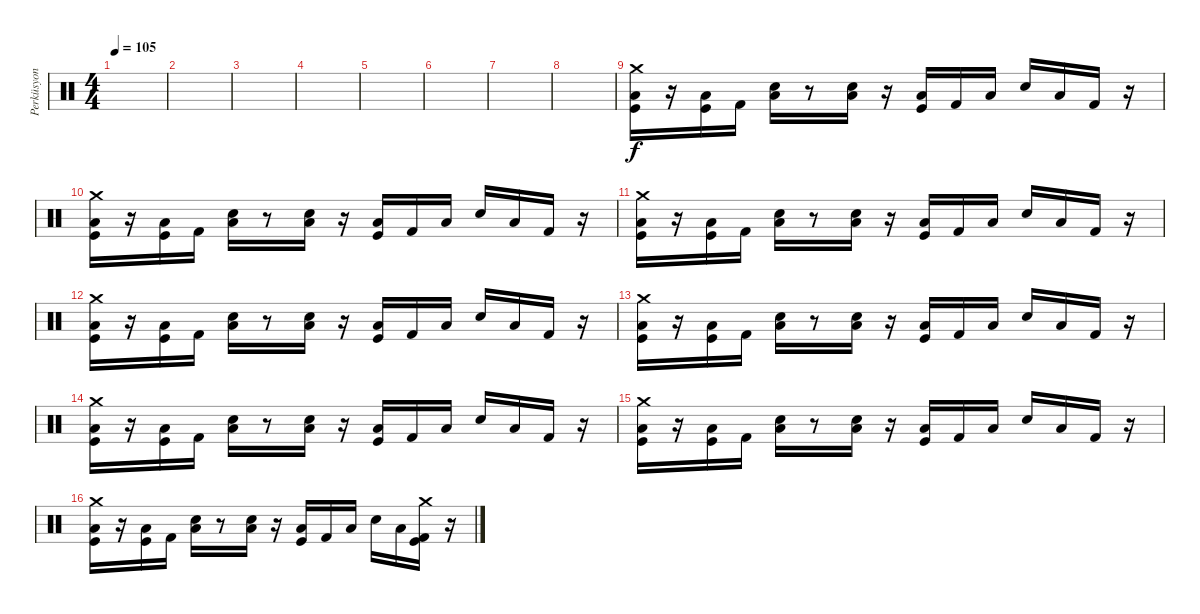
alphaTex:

\track ("Perküsyon" "Perküsyon") {instrument percussion}
\staff {score}
\articulation defaults
\ts (4 4)
\tempo 105
\clef neutral
\ks c
|
|
|
|
|
|
|
|
("Crash medium (hit)" "Kick (hit)" "Low Floor Tom (hit)").16 r.16 ("Kick (hit)" "Low Floor Tom (hit)").16 "Kick (hit) 2".16 ("Electric Snare (hit)" "Low Floor Tom (hit)").16 r.8 ("Electric Snare (hit)" "Low Floor Tom (hit)").16 r.16 ("Kick (hit)" "Low Floor Tom (hit)").16 "Kick (hit) 2".16 "Low Floor Tom (hit)".16 "Electric Snare (hit)".16 "Low Floor Tom (hit)".16 "Kick (hit) 2".16 r.16 |
("Crash medium (hit)" "Kick (hit)" "Low Floor Tom (hit)").16 r.16 ("Kick (hit)" "Low Floor Tom (hit)").16 "Kick (hit) 2".16 ("Electric Snare (hit)" "Low Floor Tom (hit)").16 r.8 ("Electric Snare (hit)" "Low Floor Tom (hit)").16 r.16 ("Kick (hit)" "Low Floor Tom (hit)").16 "Kick (hit) 2".16 "Low Floor Tom (hit)".16 "Electric Snare (hit)".16 "Low Floor Tom (hit)".16 "Kick (hit) 2".16 r.16 |
("Crash medium (hit)" "Kick (hit)" "Low Floor Tom (hit)").16 r.16 ("Kick (hit)" "Low Floor Tom (hit)").16 "Kick (hit) 2".16 ("Electric Snare (hit)" "Low Floor Tom (hit)").16 r.8 ("Electric Snare (hit)" "Low Floor Tom (hit)").16 r.16 ("Kick (hit)" "Low Floor Tom (hit)").16 "Kick (hit) 2".16 "Low Floor Tom (hit)".16 "Electric Snare (hit)".16 "Low Floor Tom (hit)".16 "Kick (hit) 2".16 r.16 |
("Crash medium (hit)" "Kick (hit)" "Low Floor Tom (hit)").16 r.16 ("Kick (hit)" "Low Floor Tom (hit)").16 "Kick (hit) 2".16 ("Electric Snare (hit)" "Low Floor Tom (hit)").16 r.8 ("Electric Snare (hit)" "Low Floor Tom (hit)").16 r.16 ("Kick (hit)" "Low Floor Tom (hit)").16 "Kick (hit) 2".16 "Low Floor Tom (hit)".16 "Electric Snare (hit)".16 "Low Floor Tom (hit)".16 "Kick (hit) 2".16 r.16 |
("Crash medium (hit)" "Kick (hit)" "Low Floor Tom (hit)").16 r.16 ("Kick (hit)" "Low Floor Tom (hit)").16 "Kick (hit) 2".16 ("Electric Snare (hit)" "Low Floor Tom (hit)").16 r.8 ("Electric Snare (hit)" "Low Floor Tom (hit)").16 r.16 ("Kick (hit)" "Low Floor Tom (hit)").16 "Kick (hit) 2".16 "Low Floor Tom (hit)".16 "Electric Snare (hit)".16 "Low Floor Tom (hit)".16 "Kick (hit) 2".16 r.16 |
("Crash medium (hit)" "Kick (hit)" "Low Floor Tom (hit)").16 r.16 ("Kick (hit)" "Low Floor Tom (hit)").16 "Kick (hit) 2".16 ("Electric Snare (hit)" "Low Floor Tom (hit)").16 r.8 ("Electric Snare (hit)" "Low Floor Tom (hit)").16 r.16 ("Kick (hit)" "Low Floor Tom (hit)").16 "Kick (hit) 2".16 "Low Floor Tom (hit)".16 "Electric Snare (hit)".16 "Low Floor Tom (hit)".16 "Kick (hit) 2".16 r.16 |
("Crash medium (hit)" "Kick (hit)" "Low Floor Tom (hit)").16 r.16 ("Kick (hit)" "Low Floor Tom (hit)").16 "Kick (hit) 2".16 ("Electric Snare (hit)" "Low Floor Tom (hit)").16 r.8 ("Electric Snare (hit)" "Low Floor Tom (hit)").16 r.16 ("Kick (hit)" "Low Floor Tom (hit)").16 "Kick (hit) 2".16 "Low Floor Tom (hit)".16 "Electric Snare (hit)".16 "Low Floor Tom (hit)".16 "Kick (hit) 2".16 r.16 |
("Crash medium (hit)" "Kick (hit)" "Low Floor Tom (hit)").16 r.16 ("Kick (hit)" "Low Floor Tom (hit)").16 "Kick (hit) 2".16 ("Electric Snare (hit)" "Low Floor Tom (hit)").16 r.8 ("Electric Snare (hit)" "Low Floor Tom (hit)").16 r.16 ("Kick (hit)" "Low Floor Tom (hit)").16 "Kick (hit) 2".16 "Low Floor Tom (hit)".16 "Electric Snare (hit)".16 "Low Floor Tom (hit)".16 ("Kick (hit) 2" "Crash medium (hit)" "Kick (hit)").16 r.16
